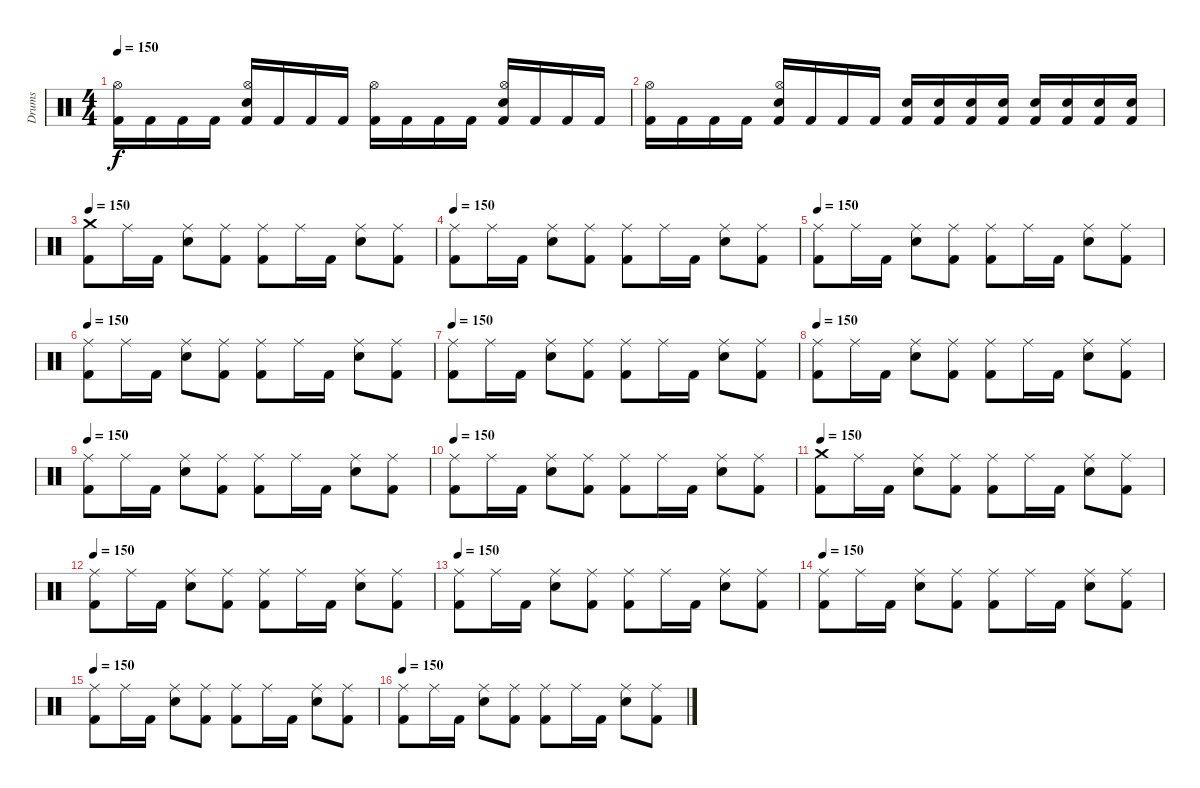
\track ("Drums" "Drums") {instrument percussion}
\staff {score}
\articulation defaults
\ts (4 4)
\tempo 150
\clef neutral
\ks c
("Kick (hit) 2" "Hi-Hat (open)").16{dy f} "Kick (hit) 2".16 "Kick (hit) 2".16 "Kick (hit) 2".16 ("Kick (hit) 2" "Electric Snare (hit)" "Hi-Hat (open)").16 "Kick (hit) 2".16 "Kick (hit) 2".16 "Kick (hit) 2".16 ("Kick (hit) 2" "Hi-Hat (open)").16 "Kick (hit) 2".16 "Kick (hit) 2".16 "Kick (hit) 2".16 ("Kick (hit) 2" "Electric Snare (hit)" "Hi-Hat (open)").16 "Kick (hit) 2".16 "Kick (hit) 2".16 "Kick (hit) 2".16 |
("Kick (hit) 2" "Hi-Hat (open)").16 "Kick (hit) 2".16 "Kick (hit) 2".16 "Kick (hit) 2".16 ("Kick (hit) 2" "Electric Snare (hit)" "Hi-Hat (open)").16 "Kick (hit) 2".16 "Kick (hit) 2".16 "Kick (hit) 2".16 ("Kick (hit) 2" "Electric Snare (hit)").16 ("Kick (hit) 2" "Electric Snare (hit)").16 ("Kick (hit) 2" "Electric Snare (hit)").16 ("Kick (hit) 2" "Electric Snare (hit)").16 ("Kick (hit) 2" "Snare (hit) 2").16 ("Kick (hit) 2" "Snare (hit) 2").16 ("Kick (hit) 2" "Electric Snare (hit)").16 ("Kick (hit) 2" "Electric Snare (hit)").16 |
\tempo 150
("Kick (hit) 2" "Crash medium (hit)").8 "Ride (middle)".16 "Kick (hit) 2".16 ("Electric Snare (hit)" "Ride (middle)").8 ("Kick (hit) 2" "Ride (middle)").8 ("Kick (hit) 2" "Ride (middle)").8 "Ride (middle)".16 "Kick (hit) 2".16 ("Electric Snare (hit)" "Ride (middle)").8 ("Kick (hit) 2" "Ride (middle)").8 |
\tempo 150
("Kick (hit) 2" "Ride (middle)").8 "Ride (middle)".16 "Kick (hit) 2".16 ("Electric Snare (hit)" "Ride (middle)").8 ("Kick (hit) 2" "Ride (middle)").8 ("Kick (hit) 2" "Ride (middle)").8 "Ride (middle)".16 "Kick (hit) 2".16 ("Electric Snare (hit)" "Ride (middle)").8 ("Kick (hit) 2" "Ride (middle)").8 |
\tempo 150
("Kick (hit) 2" "Ride (middle)").8 "Ride (middle)".16 "Kick (hit) 2".16 ("Electric Snare (hit)" "Ride (middle)").8 ("Kick (hit) 2" "Ride (middle)").8 ("Kick (hit) 2" "Ride (middle)").8 "Ride (middle)".16 "Kick (hit) 2".16 ("Electric Snare (hit)" "Ride (middle)").8 ("Kick (hit) 2" "Ride (middle)").8 |
\tempo 150
("Kick (hit) 2" "Ride (middle)").8 "Ride (middle)".16 "Kick (hit) 2".16 ("Electric Snare (hit)" "Ride (middle)").8 ("Kick (hit) 2" "Ride (middle)").8 ("Kick (hit) 2" "Ride (middle)").8 "Ride (middle)".16 "Kick (hit) 2".16 ("Electric Snare (hit)" "Ride (middle)").8 ("Kick (hit) 2" "Ride (middle)").8 |
\tempo 150
("Kick (hit) 2" "Ride (middle)").8 "Ride (middle)".16 "Kick (hit) 2".16 ("Electric Snare (hit)" "Ride (middle)").8 ("Kick (hit) 2" "Ride (middle)").8 ("Kick (hit) 2" "Ride (middle)").8 "Ride (middle)".16 "Kick (hit) 2".16 ("Electric Snare (hit)" "Ride (middle)").8 ("Kick (hit) 2" "Ride (middle)").8 |
\tempo 150
("Kick (hit) 2" "Ride (middle)").8 "Ride (middle)".16 "Kick (hit) 2".16 ("Electric Snare (hit)" "Ride (middle)").8 ("Kick (hit) 2" "Ride (middle)").8 ("Kick (hit) 2" "Ride (middle)").8 "Ride (middle)".16 "Kick (hit) 2".16 ("Electric Snare (hit)" "Ride (middle)").8 ("Kick (hit) 2" "Ride (middle)").8 |
\tempo 150
("Kick (hit) 2" "Ride (middle)").8 "Ride (middle)".16 "Kick (hit) 2".16 ("Electric Snare (hit)" "Ride (middle)").8 ("Kick (hit) 2" "Ride (middle)").8 ("Kick (hit) 2" "Ride (middle)").8 "Ride (middle)".16 "Kick (hit) 2".16 ("Electric Snare (hit)" "Ride (middle)").8 ("Kick (hit) 2" "Ride (middle)").8 |
\tempo 150
("Kick (hit) 2" "Ride (middle)").8 "Ride (middle)".16 "Kick (hit) 2".16 ("Electric Snare (hit)" "Ride (middle)").8 ("Kick (hit) 2" "Ride (middle)").8 ("Kick (hit) 2" "Ride (middle)").8 "Ride (middle)".16 "Kick (hit) 2".16 ("Electric Snare (hit)" "Ride (middle)").8 ("Kick (hit) 2" "Ride (middle)").8 |
\tempo 150
("Kick (hit) 2" "Crash medium (hit)").8 "Ride (middle)".16 "Kick (hit) 2".16 ("Electric Snare (hit)" "Ride (middle)").8 ("Kick (hit) 2" "Ride (middle)").8 ("Kick (hit) 2" "Ride (middle)").8 "Ride (middle)".16 "Kick (hit) 2".16 ("Electric Snare (hit)" "Ride (middle)").8 ("Kick (hit) 2" "Ride (middle)").8 |
\tempo 150
("Kick (hit) 2" "Ride (middle)").8 "Ride (middle)".16 "Kick (hit) 2".16 ("Electric Snare (hit)" "Ride (middle)").8 ("Kick (hit) 2" "Ride (middle)").8 ("Kick (hit) 2" "Ride (middle)").8 "Ride (middle)".16 "Kick (hit) 2".16 ("Electric Snare (hit)" "Ride (middle)").8 ("Kick (hit) 2" "Ride (middle)").8 |
\tempo 150
("Kick (hit) 2" "Ride (middle)").8 "Ride (middle)".16 "Kick (hit) 2".16 ("Electric Snare (hit)" "Ride (middle)").8 ("Kick (hit) 2" "Ride (middle)").8 ("Kick (hit) 2" "Ride (middle)").8 "Ride (middle)".16 "Kick (hit) 2".16 ("Electric Snare (hit)" "Ride (middle)").8 ("Kick (hit) 2" "Ride (middle)").8 |
\tempo 150
("Kick (hit) 2" "Ride (middle)").8 "Ride (middle)".16 "Kick (hit) 2".16 ("Electric Snare (hit)" "Ride (middle)").8 ("Kick (hit) 2" "Ride (middle)").8 ("Kick (hit) 2" "Ride (middle)").8 "Ride (middle)".16 "Kick (hit) 2".16 ("Electric Snare (hit)" "Ride (middle)").8 ("Kick (hit) 2" "Ride (middle)").8 |
\tempo 150
("Kick (hit) 2" "Ride (middle)").8 "Ride (middle)".16 "Kick (hit) 2".16 ("Electric Snare (hit)" "Ride (middle)").8 ("Kick (hit) 2" "Ride (middle)").8 ("Kick (hit) 2" "Ride (middle)").8 "Ride (middle)".16 "Kick (hit) 2".16 ("Electric Snare (hit)" "Ride (middle)").8 ("Kick (hit) 2" "Ride (middle)").8 |
\tempo 150
("Kick (hit) 2" "Ride (middle)").8 "Ride (middle)".16 "Kick (hit) 2".16 ("Electric Snare (hit)" "Ride (middle)").8 ("Kick (hit) 2" "Ride (middle)").8 ("Kick (hit) 2" "Ride (middle)").8 "Ride (middle)".16 "Kick (hit) 2".16 ("Electric Snare (hit)" "Ride (middle)").8 ("Kick (hit) 2" "Ride (middle)").8
